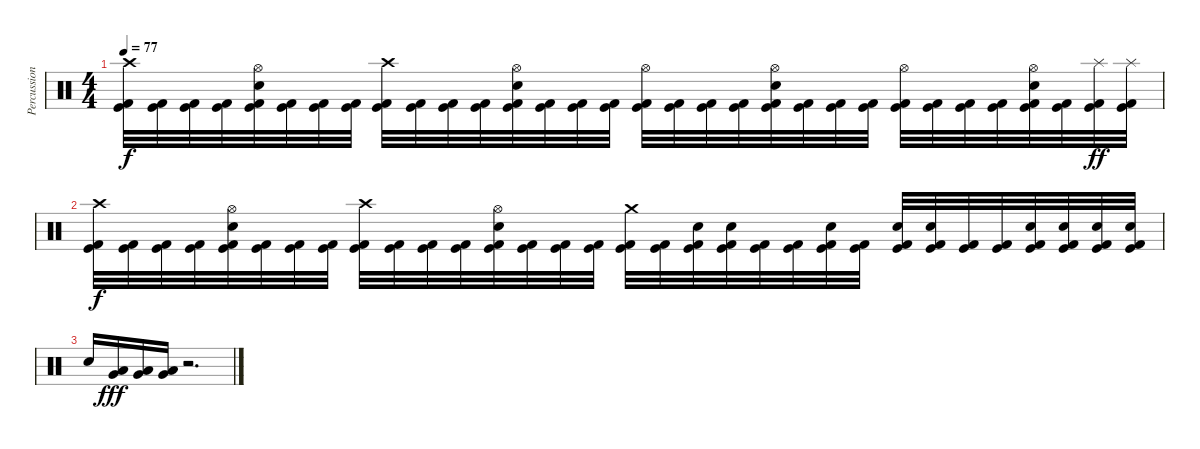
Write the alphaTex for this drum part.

\track ("Percussion" "Percussion") {instrument percussion}
\staff {score}
\articulation defaults
\ts (4 4)
\tempo 77
\clef neutral
\ks c
("Crash high (hit)" "Kick (hit)" "Kick (hit) 2").32{dy f} ("Kick (hit)" "Kick (hit) 2").32 ("Kick (hit)" "Kick (hit) 2").32 ("Kick (hit)" "Kick (hit) 2").32 ("Hi-Hat (open)" "Electric Snare (hit)" "Kick (hit)" "Kick (hit) 2").32 ("Kick (hit)" "Kick (hit) 2").32 ("Kick (hit)" "Kick (hit) 2").32 ("Kick (hit)" "Kick (hit) 2").32 ("Crash high (hit)" "Kick (hit)" "Kick (hit) 2").32 ("Kick (hit)" "Kick (hit) 2").32 ("Kick (hit)" "Kick (hit) 2").32 ("Kick (hit)" "Kick (hit) 2").32 ("Hi-Hat (open)" "Electric Snare (hit)" "Kick (hit)" "Kick (hit) 2").32 ("Kick (hit)" "Kick (hit) 2").32 ("Kick (hit)" "Kick (hit) 2").32 ("Kick (hit)" "Kick (hit) 2").32 ("Hi-Hat (open)" "Kick (hit)" "Kick (hit) 2").32 ("Kick (hit)" "Kick (hit) 2").32 ("Kick (hit)" "Kick (hit) 2").32 ("Kick (hit)" "Kick (hit) 2").32 ("Hi-Hat (open)" "Electric Snare (hit)" "Kick (hit)" "Kick (hit) 2").32 ("Kick (hit)" "Kick (hit) 2").32 ("Kick (hit)" "Kick (hit) 2").32 ("Kick (hit)" "Kick (hit) 2").32 ("Hi-Hat (open)" "Kick (hit)" "Kick (hit) 2").32 ("Kick (hit)" "Kick (hit) 2").32 ("Kick (hit)" "Kick (hit) 2").32 ("Kick (hit)" "Kick (hit) 2").32 ("Hi-Hat (open)" "Electric Snare (hit)" "Kick (hit)" "Kick (hit) 2").32 ("Kick (hit)" "Kick (hit) 2").32 ("Splash (hit)" "Kick (hit)" "Kick (hit) 2").32{dy ff} ("Splash (hit)" "Kick (hit)" "Kick (hit) 2").32 |
("Crash high (hit)" "Kick (hit)" "Kick (hit) 2").32{dy f} ("Kick (hit)" "Kick (hit) 2").32 ("Kick (hit)" "Kick (hit) 2").32 ("Kick (hit)" "Kick (hit) 2").32 ("Hi-Hat (open)" "Electric Snare (hit)" "Kick (hit)" "Kick (hit) 2").32 ("Kick (hit)" "Kick (hit) 2").32 ("Kick (hit)" "Kick (hit) 2").32 ("Kick (hit)" "Kick (hit) 2").32 ("Crash high (hit)" "Kick (hit)" "Kick (hit) 2").32 ("Kick (hit)" "Kick (hit) 2").32 ("Kick (hit)" "Kick (hit) 2").32 ("Kick (hit)" "Kick (hit) 2").32 ("Hi-Hat (open)" "Electric Snare (hit)" "Kick (hit)" "Kick (hit) 2").32 ("Kick (hit)" "Kick (hit) 2").32 ("Kick (hit)" "Kick (hit) 2").32 ("Kick (hit)" "Kick (hit) 2").32 ("Crash medium (hit)" "Kick (hit)" "Kick (hit) 2").32 ("Kick (hit)" "Kick (hit) 2").32 ("Electric Snare (hit)" "Kick (hit)" "Kick (hit) 2").32 ("Electric Snare (hit)" "Kick (hit)" "Kick (hit) 2").32 ("Kick (hit)" "Kick (hit) 2").32 ("Kick (hit)" "Kick (hit) 2").32 ("Electric Snare (hit)" "Kick (hit)" "Kick (hit) 2").32 ("Kick (hit)" "Kick (hit) 2").32 ("Electric Snare (hit)" "Kick (hit)" "Kick (hit) 2").32 ("Electric Snare (hit)" "Kick (hit)" "Kick (hit) 2").32 ("Kick (hit)" "Kick (hit) 2").32 ("Kick (hit)" "Kick (hit) 2").32 ("Electric Snare (hit)" "Kick (hit)" "Kick (hit) 2").32 ("Electric Snare (hit)" "Kick (hit)" "Kick (hit) 2").32 ("Electric Snare (hit)" "Kick (hit)" "Kick (hit) 2").32 ("Electric Snare (hit)" "Kick (hit)" "Kick (hit) 2").32 |
"Electric Snare (hit)".16 ("Low Floor Tom (hit)" "Very Low Tom (hit)").16{dy fff} ("Low Floor Tom (hit)" "Very Low Tom (hit)").16 ("Low Floor Tom (hit)" "Very Low Tom (hit)").16 r.2{d}
